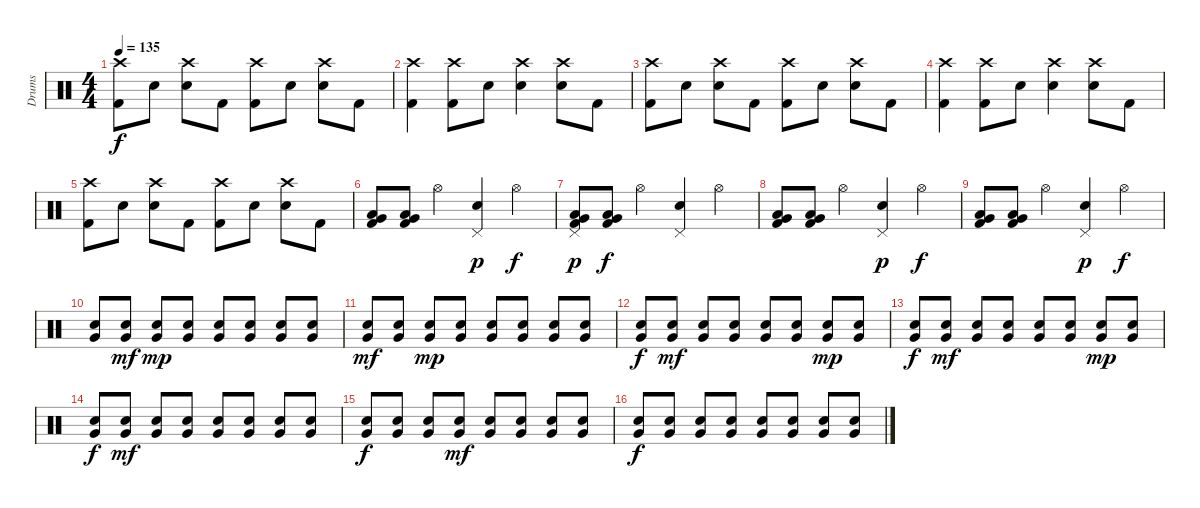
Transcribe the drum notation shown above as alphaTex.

\track ("Drums" "Drums") {instrument percussion}
\staff {score}
\articulation defaults
\ts (4 4)
\tempo 135
\clef neutral
\ks c
("Crash high (hit)" "Kick (hit) 2").8{dy f} "Electric Snare (hit)".8 ("Crash high (hit)" "Electric Snare (hit)").8 "Kick (hit) 2".8 ("Crash high (hit)" "Kick (hit) 2").8 "Electric Snare (hit)".8 ("Crash high (hit)" "Electric Snare (hit)").8 "Kick (hit) 2".8 |
("Crash high (hit)" "Kick (hit) 2").4 ("Crash high (hit)" "Kick (hit) 2").8 "Electric Snare (hit)".8 ("Crash high (hit)" "Electric Snare (hit)").4 ("Crash high (hit)" "Electric Snare (hit)").8 "Kick (hit) 2".8 |
("Crash high (hit)" "Kick (hit) 2").8 "Electric Snare (hit)".8 ("Crash high (hit)" "Electric Snare (hit)").8 "Kick (hit) 2".8 ("Crash high (hit)" "Kick (hit) 2").8 "Electric Snare (hit)".8 ("Crash high (hit)" "Electric Snare (hit)").8 "Kick (hit) 2".8 |
("Crash high (hit)" "Kick (hit) 2").4 ("Crash high (hit)" "Kick (hit) 2").8 "Electric Snare (hit)".8 ("Crash high (hit)" "Electric Snare (hit)").4 ("Crash high (hit)" "Electric Snare (hit)").8 "Kick (hit) 2".8 |
("Crash high (hit)" "Kick (hit) 2").8 "Electric Snare (hit)".8 ("Crash high (hit)" "Electric Snare (hit)").8 "Kick (hit) 2".8 ("Crash high (hit)" "Kick (hit) 2").8 "Electric Snare (hit)".8 ("Crash high (hit)" "Electric Snare (hit)").8 "Kick (hit) 2".8 |
("Very Low Tom (hit)" "Low Tom (hit)" "Kick (hit) 2").8 ("Very Low Tom (hit)" "Low Tom (hit)" "Kick (hit) 2").8 "Hi-Hat (open)".4 ("Pedal Hi-Hat (hit)" "Electric Snare (hit)").4{dy p} "Hi-Hat (open)".4{dy f} |
("Pedal Hi-Hat (hit)" "Very Low Tom (hit)" "Low Tom (hit)" "Kick (hit) 2").8{dy p} ("Very Low Tom (hit)" "Low Tom (hit)" "Kick (hit) 2").8{dy f} "Hi-Hat (open)".4 ("Pedal Hi-Hat (hit)" "Electric Snare (hit)").4 "Hi-Hat (open)".4 |
("Very Low Tom (hit)" "Low Tom (hit)" "Kick (hit) 2").8 ("Very Low Tom (hit)" "Low Tom (hit)" "Kick (hit) 2").8 "Hi-Hat (open)".4 ("Pedal Hi-Hat (hit)" "Electric Snare (hit)").4{dy p} "Hi-Hat (open)".4{dy f} |
("Very Low Tom (hit)" "Low Tom (hit)" "Kick (hit) 2").8 ("Very Low Tom (hit)" "Low Tom (hit)" "Kick (hit) 2").8 "Hi-Hat (open)".4 ("Pedal Hi-Hat (hit)" "Electric Snare (hit)").4{dy p} "Hi-Hat (open)".4{dy f} |
("Very Low Tom (hit)" "Electric Snare (hit)").8 ("Very Low Tom (hit)" "Electric Snare (hit)").8{dy mf} ("Very Low Tom (hit)" "Electric Snare (hit)").8{dy mp} ("Very Low Tom (hit)" "Electric Snare (hit)").8 ("Very Low Tom (hit)" "Electric Snare (hit)").8 ("Very Low Tom (hit)" "Electric Snare (hit)").8 ("Very Low Tom (hit)" "Electric Snare (hit)").8 ("Very Low Tom (hit)" "Electric Snare (hit)").8 |
("Very Low Tom (hit)" "Electric Snare (hit)").8{dy mf} ("Very Low Tom (hit)" "Electric Snare (hit)").8 ("Very Low Tom (hit)" "Electric Snare (hit)").8{dy mp} ("Very Low Tom (hit)" "Electric Snare (hit)").8 ("Very Low Tom (hit)" "Electric Snare (hit)").8 ("Very Low Tom (hit)" "Electric Snare (hit)").8 ("Very Low Tom (hit)" "Electric Snare (hit)").8 ("Very Low Tom (hit)" "Electric Snare (hit)").8 |
("Very Low Tom (hit)" "Electric Snare (hit)").8{dy f} ("Very Low Tom (hit)" "Electric Snare (hit)").8{dy mf} ("Very Low Tom (hit)" "Electric Snare (hit)").8 ("Very Low Tom (hit)" "Electric Snare (hit)").8 ("Very Low Tom (hit)" "Electric Snare (hit)").8 ("Very Low Tom (hit)" "Electric Snare (hit)").8 ("Very Low Tom (hit)" "Electric Snare (hit)").8{dy mp} ("Very Low Tom (hit)" "Electric Snare (hit)").8 |
("Very Low Tom (hit)" "Electric Snare (hit)").8{dy f} ("Very Low Tom (hit)" "Electric Snare (hit)").8{dy mf} ("Very Low Tom (hit)" "Electric Snare (hit)").8 ("Very Low Tom (hit)" "Electric Snare (hit)").8 ("Very Low Tom (hit)" "Electric Snare (hit)").8 ("Very Low Tom (hit)" "Electric Snare (hit)").8 ("Very Low Tom (hit)" "Electric Snare (hit)").8{dy mp} ("Very Low Tom (hit)" "Electric Snare (hit)").8 |
("Very Low Tom (hit)" "Electric Snare (hit)").8{dy f} ("Very Low Tom (hit)" "Electric Snare (hit)").8{dy mf} ("Very Low Tom (hit)" "Electric Snare (hit)").8 ("Very Low Tom (hit)" "Electric Snare (hit)").8 ("Very Low Tom (hit)" "Electric Snare (hit)").8 ("Very Low Tom (hit)" "Electric Snare (hit)").8 ("Very Low Tom (hit)" "Electric Snare (hit)").8 ("Very Low Tom (hit)" "Electric Snare (hit)").8 |
("Very Low Tom (hit)" "Electric Snare (hit)").8{dy f} ("Very Low Tom (hit)" "Electric Snare (hit)").8 ("Very Low Tom (hit)" "Electric Snare (hit)").8 ("Very Low Tom (hit)" "Electric Snare (hit)").8{dy mf} ("Very Low Tom (hit)" "Electric Snare (hit)").8 ("Very Low Tom (hit)" "Electric Snare (hit)").8 ("Very Low Tom (hit)" "Electric Snare (hit)").8 ("Very Low Tom (hit)" "Electric Snare (hit)").8 |
("Very Low Tom (hit)" "Electric Snare (hit)").8{dy f} ("Very Low Tom (hit)" "Electric Snare (hit)").8 ("Very Low Tom (hit)" "Electric Snare (hit)").8 ("Very Low Tom (hit)" "Electric Snare (hit)").8 ("Very Low Tom (hit)" "Electric Snare (hit)").8 ("Very Low Tom (hit)" "Electric Snare (hit)").8 ("Very Low Tom (hit)" "Electric Snare (hit)").8 ("Very Low Tom (hit)" "Electric Snare (hit)").8
